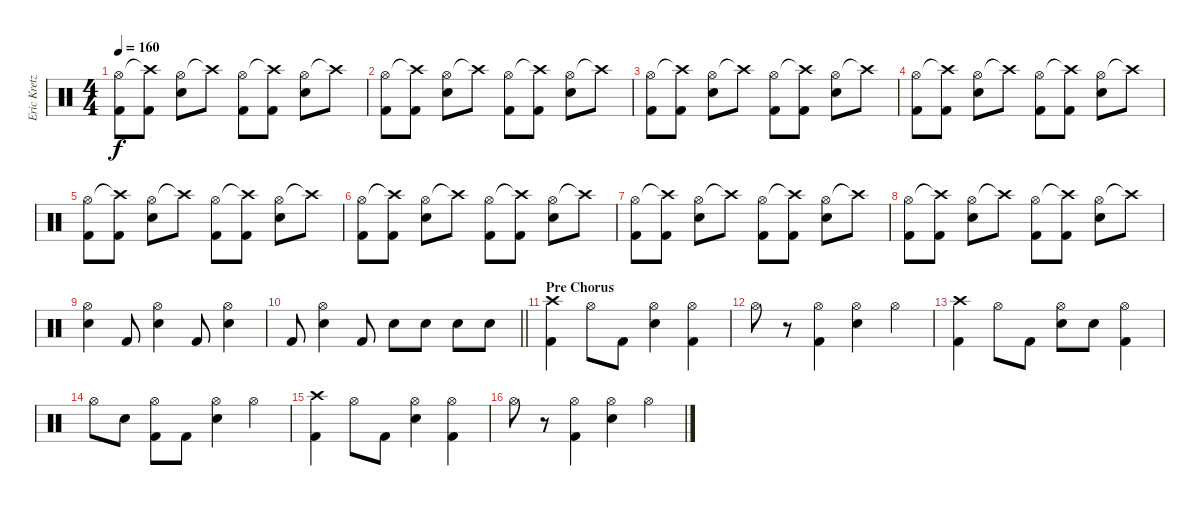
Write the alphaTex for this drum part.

\track ("Eric Kretz (Drums)" "Eric Kretz") {instrument percussion}
\staff {score}
\articulation defaults
\ts (4 4)
\tempo 160
\clef neutral
\ks c
("Hi-Hat (open)" "Kick (hit) 2").8{dy f} ("Crash high (hit)"{t} "Kick (hit) 2").8 ("Hi-Hat (open)" "Snare (hit) 2").8 "Crash high (hit)"{t}.8 ("Hi-Hat (open)" "Kick (hit) 2").8 ("Crash high (hit)"{t} "Kick (hit) 2").8 ("Hi-Hat (open)" "Snare (hit) 2").8 "Crash high (hit)"{t}.8 |
("Hi-Hat (open)" "Kick (hit) 2").8 ("Crash high (hit)"{t} "Kick (hit) 2").8 ("Hi-Hat (open)" "Snare (hit) 2").8 "Crash high (hit)"{t}.8 ("Hi-Hat (open)" "Kick (hit) 2").8 ("Crash high (hit)"{t} "Kick (hit) 2").8 ("Hi-Hat (open)" "Snare (hit) 2").8 "Crash high (hit)"{t}.8 |
("Hi-Hat (open)" "Kick (hit) 2").8 ("Crash high (hit)"{t} "Kick (hit) 2").8 ("Hi-Hat (open)" "Snare (hit) 2").8 "Crash high (hit)"{t}.8 ("Hi-Hat (open)" "Kick (hit) 2").8 ("Crash high (hit)"{t} "Kick (hit) 2").8 ("Hi-Hat (open)" "Snare (hit) 2").8 "Crash high (hit)"{t}.8 |
("Hi-Hat (open)" "Kick (hit) 2").8 ("Crash high (hit)"{t} "Kick (hit) 2").8 ("Hi-Hat (open)" "Snare (hit) 2").8 "Crash high (hit)"{t}.8 ("Hi-Hat (open)" "Kick (hit) 2").8 ("Crash high (hit)"{t} "Kick (hit) 2").8 ("Hi-Hat (open)" "Snare (hit) 2").8 "Crash high (hit)"{t}.8 |
("Hi-Hat (open)" "Kick (hit) 2").8 ("Crash high (hit)"{t} "Kick (hit) 2").8 ("Hi-Hat (open)" "Snare (hit) 2").8 "Crash high (hit)"{t}.8 ("Hi-Hat (open)" "Kick (hit) 2").8 ("Crash high (hit)"{t} "Kick (hit) 2").8 ("Hi-Hat (open)" "Snare (hit) 2").8 "Crash high (hit)"{t}.8 |
("Hi-Hat (open)" "Kick (hit) 2").8 ("Crash high (hit)"{t} "Kick (hit) 2").8 ("Hi-Hat (open)" "Snare (hit) 2").8 "Crash high (hit)"{t}.8 ("Hi-Hat (open)" "Kick (hit) 2").8 ("Crash high (hit)"{t} "Kick (hit) 2").8 ("Hi-Hat (open)" "Snare (hit) 2").8 "Crash high (hit)"{t}.8 |
("Hi-Hat (open)" "Kick (hit) 2").8 ("Crash high (hit)"{t} "Kick (hit) 2").8 ("Hi-Hat (open)" "Snare (hit) 2").8 "Crash high (hit)"{t}.8 ("Hi-Hat (open)" "Kick (hit) 2").8 ("Crash high (hit)"{t} "Kick (hit) 2").8 ("Hi-Hat (open)" "Snare (hit) 2").8 "Crash high (hit)"{t}.8 |
("Hi-Hat (open)" "Kick (hit) 2").8 ("Crash high (hit)"{t} "Kick (hit) 2").8 ("Hi-Hat (open)" "Snare (hit) 2").8 "Crash high (hit)"{t}.8 ("Hi-Hat (open)" "Kick (hit) 2").8 ("Crash high (hit)"{t} "Kick (hit) 2").8 ("Hi-Hat (open)" "Snare (hit) 2").8 "Crash high (hit)"{t}.8 |
("Hi-Hat (open)" "Snare (hit) 2").4 "Kick (hit) 2".8 ("Hi-Hat (open)" "Snare (hit) 2").4 "Kick (hit) 2".8 ("Hi-Hat (open)" "Snare (hit) 2").4 |
\barLineRight lightlight "Kick (hit) 2".8
("Hi-Hat (open)" "Snare (hit) 2").4 "Kick (hit) 2".8 "Snare (hit) 2".8 "Snare (hit) 2".8 "Snare (hit) 2".8 "Snare (hit) 2".8 |
\section ("" "Pre Chorus")
("Crash high (hit)" "Kick (hit) 2").4 "Hi-Hat (open)".8 "Kick (hit) 2".8 ("Hi-Hat (open)" "Snare (hit) 2").4 ("Hi-Hat (open)" "Kick (hit) 2").4 |
"Hi-Hat (open)".8 r.8 ("Hi-Hat (open)" "Kick (hit) 2").4 ("Hi-Hat (open)" "Snare (hit) 2").4 "Hi-Hat (open)".4 |
("Crash high (hit)" "Kick (hit) 2").4 "Hi-Hat (open)".8 "Kick (hit) 2".8 ("Hi-Hat (open)" "Snare (hit) 2").8 "Snare (hit) 2".8 ("Hi-Hat (open)" "Kick (hit) 2").4 |
"Hi-Hat (open)".8 "Snare (hit) 2".8 ("Hi-Hat (open)" "Kick (hit) 2").8 "Kick (hit) 2".8 ("Hi-Hat (open)" "Snare (hit) 2").4 "Hi-Hat (open)".4 |
("Crash high (hit)" "Kick (hit) 2").4 "Hi-Hat (open)".8 "Kick (hit) 2".8 ("Hi-Hat (open)" "Snare (hit) 2").4 ("Hi-Hat (open)" "Kick (hit) 2").4 |
"Hi-Hat (open)".8 r.8 ("Hi-Hat (open)" "Kick (hit) 2").4 ("Hi-Hat (open)" "Snare (hit) 2").4 "Hi-Hat (open)".4
